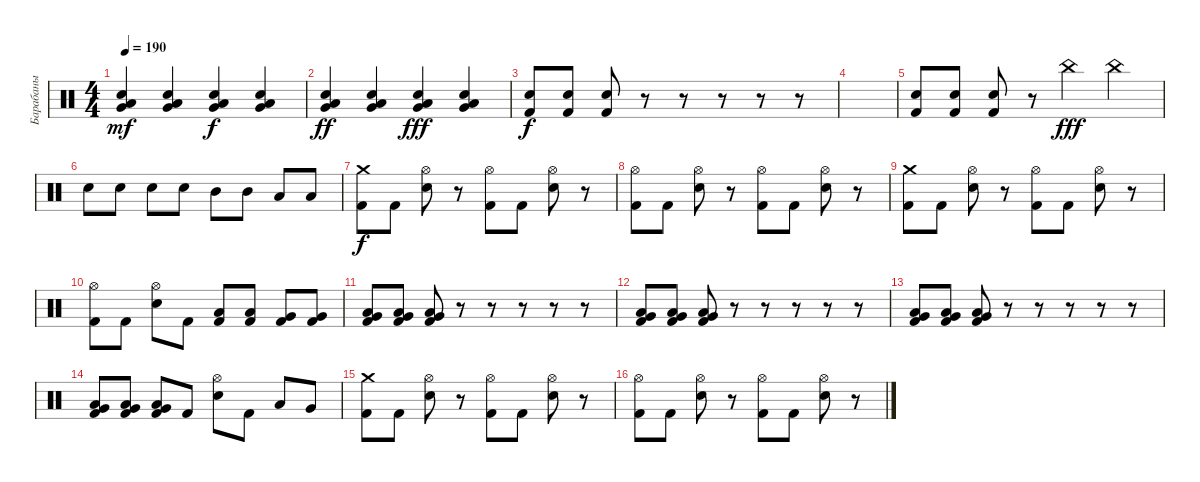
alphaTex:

\track ("Барабаны" "Барабаны") {instrument percussion}
\staff {score}
\articulation defaults
\ts (4 4)
\tempo 190
\clef neutral
\ks c
("Very Low Tom (hit)" "Electric Snare (hit)" "Low Tom (hit)").4{dy mf} ("Very Low Tom (hit)" "Electric Snare (hit)" "Low Tom (hit)").4 ("Very Low Tom (hit)" "Electric Snare (hit)" "Low Tom (hit)").4{dy f} ("Very Low Tom (hit)" "Electric Snare (hit)" "Low Tom (hit)").4 |
("Very Low Tom (hit)" "Electric Snare (hit)" "Low Tom (hit)").4{dy ff} ("Very Low Tom (hit)" "Electric Snare (hit)" "Low Tom (hit)").4 ("Very Low Tom (hit)" "Electric Snare (hit)" "Low Tom (hit)").4{dy fff} ("Very Low Tom (hit)" "Electric Snare (hit)" "Low Tom (hit)").4 |
("Electric Snare (hit)" "Kick (hit) 2").8{dy f} ("Electric Snare (hit)" "Kick (hit) 2").8 ("Electric Snare (hit)" "Kick (hit) 2").8 r.8 r.8 r.8 r.8 r.8 |
|
("Electric Snare (hit)" "Kick (hit) 2").8 ("Electric Snare (hit)" "Kick (hit) 2").8 ("Electric Snare (hit)" "Kick (hit) 2").8 r.8 "China (hit)".4{dy fff} "China (hit)".4 |
"Snare (hit) 2".8 "Snare (hit) 2".8 "Snare (hit) 2".8 "Snare (hit) 2".8 "Mid Tom (hit)".8 "Mid Tom (hit)".8 "Low Tom (hit)".8 "Low Tom (hit)".8 |
("Crash medium (hit)" "Kick (hit) 2").8{dy f} "Kick (hit) 2".8 ("Hi-Hat (open)" "Electric Snare (hit)").8 r.8 ("Hi-Hat (open)" "Kick (hit) 2").8 "Kick (hit) 2".8 ("Hi-Hat (open)" "Electric Snare (hit)").8 r.8 |
("Hi-Hat (open)" "Kick (hit) 2").8 "Kick (hit) 2".8 ("Hi-Hat (open)" "Electric Snare (hit)").8 r.8 ("Hi-Hat (open)" "Kick (hit) 2").8 "Kick (hit) 2".8 ("Hi-Hat (open)" "Electric Snare (hit)").8 r.8 |
("Crash medium (hit)" "Kick (hit) 2").8 "Kick (hit) 2".8 ("Hi-Hat (open)" "Electric Snare (hit)").8 r.8 ("Hi-Hat (open)" "Kick (hit) 2").8 "Kick (hit) 2".8 ("Hi-Hat (open)" "Electric Snare (hit)").8 r.8 |
("Hi-Hat (open)" "Kick (hit) 2").8 "Kick (hit) 2".8 ("Hi-Hat (open)" "Electric Snare (hit)").8 "Kick (hit) 2".8 ("Low Tom (hit)" "Kick (hit) 2").8 ("Low Tom (hit)" "Kick (hit) 2").8 ("Very Low Tom (hit)" "Kick (hit) 2").8 ("Very Low Tom (hit)" "Kick (hit) 2").8 |
("Very Low Tom (hit)" "Low Tom (hit)" "Kick (hit) 2").8 ("Very Low Tom (hit)" "Low Tom (hit)" "Kick (hit) 2").8 ("Very Low Tom (hit)" "Low Tom (hit)" "Kick (hit) 2").8 r.8 r.8 r.8 r.8 r.8 |
("Very Low Tom (hit)" "Low Tom (hit)" "Kick (hit) 2").8 ("Very Low Tom (hit)" "Low Tom (hit)" "Kick (hit) 2").8 ("Very Low Tom (hit)" "Low Tom (hit)" "Kick (hit) 2").8 r.8 r.8 r.8 r.8 r.8 |
("Very Low Tom (hit)" "Low Tom (hit)" "Kick (hit) 2").8 ("Very Low Tom (hit)" "Low Tom (hit)" "Kick (hit) 2").8 ("Very Low Tom (hit)" "Low Tom (hit)" "Kick (hit) 2").8 r.8 r.8 r.8 r.8 r.8 |
("Very Low Tom (hit)" "Low Tom (hit)" "Kick (hit) 2").8 ("Very Low Tom (hit)" "Low Tom (hit)" "Kick (hit) 2").8 ("Very Low Tom (hit)" "Low Tom (hit)" "Kick (hit) 2").8 "Kick (hit) 2".8 ("Hi-Hat (open)" "Electric Snare (hit)").8 "Kick (hit) 2".8 "Low Tom (hit)".8 "Very Low Tom (hit)".8 |
("Crash medium (hit)" "Kick (hit) 2").8 "Kick (hit) 2".8 ("Hi-Hat (open)" "Electric Snare (hit)").8 r.8 ("Hi-Hat (open)" "Kick (hit) 2").8 "Kick (hit) 2".8 ("Hi-Hat (open)" "Electric Snare (hit)").8 r.8 |
("Hi-Hat (open)" "Kick (hit) 2").8 "Kick (hit) 2".8 ("Hi-Hat (open)" "Electric Snare (hit)").8 r.8 ("Hi-Hat (open)" "Kick (hit) 2").8 "Kick (hit) 2".8 ("Hi-Hat (open)" "Electric Snare (hit)").8 r.8
